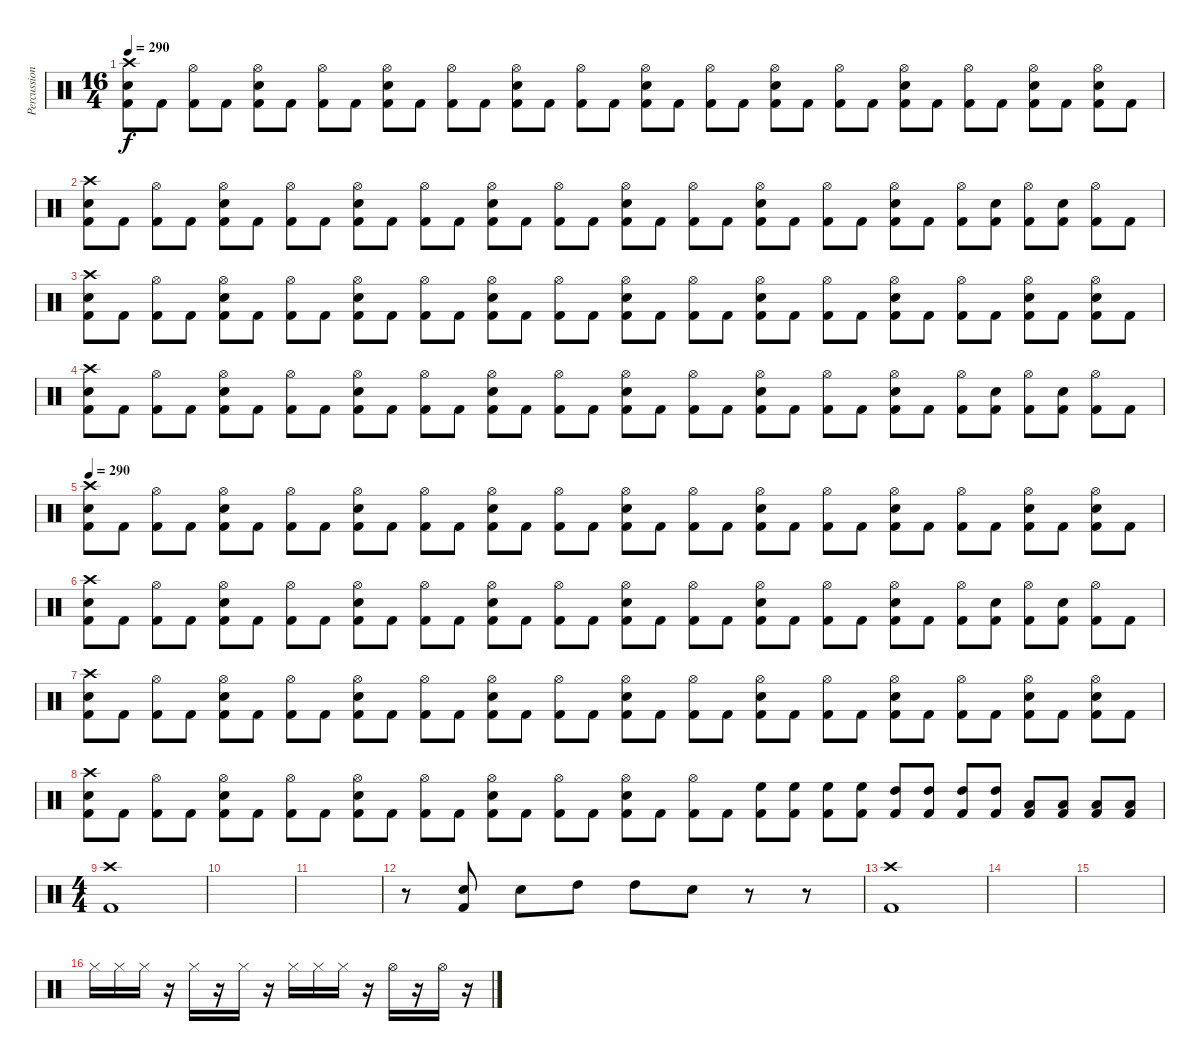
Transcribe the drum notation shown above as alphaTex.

\track ("Percussion" "Percussion") {instrument percussion}
\staff {score}
\articulation defaults
\ts (16 4)
\tempo 290
\clef neutral
\ks c
("Crash high (hit)" "Snare (hit) 2" "Kick (hit) 2").8{dy f} "Kick (hit) 2".8 ("Hi-Hat (open)" "Kick (hit) 2").8 "Kick (hit) 2".8 ("Hi-Hat (open)" "Snare (hit) 2" "Kick (hit) 2").8 "Kick (hit) 2".8 ("Hi-Hat (open)" "Kick (hit) 2").8 "Kick (hit) 2".8 ("Hi-Hat (open)" "Snare (hit) 2" "Kick (hit) 2").8 "Kick (hit) 2".8 ("Hi-Hat (open)" "Kick (hit) 2").8 "Kick (hit) 2".8 ("Hi-Hat (open)" "Snare (hit) 2" "Kick (hit) 2").8 "Kick (hit) 2".8 ("Hi-Hat (open)" "Kick (hit) 2").8 "Kick (hit) 2".8 ("Hi-Hat (open)" "Snare (hit) 2" "Kick (hit) 2").8 "Kick (hit) 2".8 ("Hi-Hat (open)" "Kick (hit) 2").8 "Kick (hit) 2".8 ("Hi-Hat (open)" "Snare (hit) 2" "Kick (hit) 2").8 "Kick (hit) 2".8 ("Hi-Hat (open)" "Kick (hit) 2").8 "Kick (hit) 2".8 ("Hi-Hat (open)" "Snare (hit) 2" "Kick (hit) 2").8 "Kick (hit) 2".8 ("Hi-Hat (open)" "Kick (hit) 2").8 "Kick (hit) 2".8 ("Hi-Hat (open)" "Snare (hit) 2" "Kick (hit) 2").8 "Kick (hit) 2".8 ("Hi-Hat (open)" "Snare (hit) 2" "Kick (hit) 2").8 "Kick (hit) 2".8 |
("Crash high (hit)" "Snare (hit) 2" "Kick (hit) 2").8 "Kick (hit) 2".8 ("Hi-Hat (open)" "Kick (hit) 2").8 "Kick (hit) 2".8 ("Hi-Hat (open)" "Snare (hit) 2" "Kick (hit) 2").8 "Kick (hit) 2".8 ("Hi-Hat (open)" "Kick (hit) 2").8 "Kick (hit) 2".8 ("Hi-Hat (open)" "Snare (hit) 2" "Kick (hit) 2").8 "Kick (hit) 2".8 ("Hi-Hat (open)" "Kick (hit) 2").8 "Kick (hit) 2".8 ("Hi-Hat (open)" "Snare (hit) 2" "Kick (hit) 2").8 "Kick (hit) 2".8 ("Hi-Hat (open)" "Kick (hit) 2").8 "Kick (hit) 2".8 ("Hi-Hat (open)" "Snare (hit) 2" "Kick (hit) 2").8 "Kick (hit) 2".8 ("Hi-Hat (open)" "Kick (hit) 2").8 "Kick (hit) 2".8 ("Hi-Hat (open)" "Snare (hit) 2" "Kick (hit) 2").8 "Kick (hit) 2".8 ("Hi-Hat (open)" "Kick (hit) 2").8 "Kick (hit) 2".8 ("Hi-Hat (open)" "Snare (hit) 2" "Kick (hit) 2").8 "Kick (hit) 2".8 ("Hi-Hat (open)" "Kick (hit) 2").8 ("Snare (hit) 2" "Kick (hit) 2").8 ("Hi-Hat (open)" "Kick (hit) 2").8 ("Snare (hit) 2" "Kick (hit) 2").8 ("Hi-Hat (open)" "Kick (hit) 2").8 "Kick (hit) 2".8 |
("Crash high (hit)" "Snare (hit) 2" "Kick (hit) 2").8 "Kick (hit) 2".8 ("Hi-Hat (open)" "Kick (hit) 2").8 "Kick (hit) 2".8 ("Hi-Hat (open)" "Snare (hit) 2" "Kick (hit) 2").8 "Kick (hit) 2".8 ("Hi-Hat (open)" "Kick (hit) 2").8 "Kick (hit) 2".8 ("Hi-Hat (open)" "Snare (hit) 2" "Kick (hit) 2").8 "Kick (hit) 2".8 ("Hi-Hat (open)" "Kick (hit) 2").8 "Kick (hit) 2".8 ("Hi-Hat (open)" "Snare (hit) 2" "Kick (hit) 2").8 "Kick (hit) 2".8 ("Hi-Hat (open)" "Kick (hit) 2").8 "Kick (hit) 2".8 ("Hi-Hat (open)" "Snare (hit) 2" "Kick (hit) 2").8 "Kick (hit) 2".8 ("Hi-Hat (open)" "Kick (hit) 2").8 "Kick (hit) 2".8 ("Hi-Hat (open)" "Snare (hit) 2" "Kick (hit) 2").8 "Kick (hit) 2".8 ("Hi-Hat (open)" "Kick (hit) 2").8 "Kick (hit) 2".8 ("Hi-Hat (open)" "Snare (hit) 2" "Kick (hit) 2").8 "Kick (hit) 2".8 ("Hi-Hat (open)" "Kick (hit) 2").8 "Kick (hit) 2".8 ("Hi-Hat (open)" "Snare (hit) 2" "Kick (hit) 2").8 "Kick (hit) 2".8 ("Hi-Hat (open)" "Snare (hit) 2" "Kick (hit) 2").8 "Kick (hit) 2".8 |
("Crash high (hit)" "Snare (hit) 2" "Kick (hit) 2").8 "Kick (hit) 2".8 ("Hi-Hat (open)" "Kick (hit) 2").8 "Kick (hit) 2".8 ("Hi-Hat (open)" "Snare (hit) 2" "Kick (hit) 2").8 "Kick (hit) 2".8 ("Hi-Hat (open)" "Kick (hit) 2").8 "Kick (hit) 2".8 ("Hi-Hat (open)" "Snare (hit) 2" "Kick (hit) 2").8 "Kick (hit) 2".8 ("Hi-Hat (open)" "Kick (hit) 2").8 "Kick (hit) 2".8 ("Hi-Hat (open)" "Snare (hit) 2" "Kick (hit) 2").8 "Kick (hit) 2".8 ("Hi-Hat (open)" "Kick (hit) 2").8 "Kick (hit) 2".8 ("Hi-Hat (open)" "Snare (hit) 2" "Kick (hit) 2").8 "Kick (hit) 2".8 ("Hi-Hat (open)" "Kick (hit) 2").8 "Kick (hit) 2".8 ("Hi-Hat (open)" "Snare (hit) 2" "Kick (hit) 2").8 "Kick (hit) 2".8 ("Hi-Hat (open)" "Kick (hit) 2").8 "Kick (hit) 2".8 ("Hi-Hat (open)" "Snare (hit) 2" "Kick (hit) 2").8 "Kick (hit) 2".8 ("Hi-Hat (open)" "Kick (hit) 2").8 ("Snare (hit) 2" "Kick (hit) 2").8 ("Hi-Hat (open)" "Kick (hit) 2").8 ("Snare (hit) 2" "Kick (hit) 2").8 ("Hi-Hat (open)" "Kick (hit) 2").8 "Kick (hit) 2".8 |
\tempo 290
("Crash high (hit)" "Snare (hit) 2" "Kick (hit) 2").8 "Kick (hit) 2".8 ("Hi-Hat (open)" "Kick (hit) 2").8 "Kick (hit) 2".8 ("Hi-Hat (open)" "Snare (hit) 2" "Kick (hit) 2").8 "Kick (hit) 2".8 ("Hi-Hat (open)" "Kick (hit) 2").8 "Kick (hit) 2".8 ("Hi-Hat (open)" "Snare (hit) 2" "Kick (hit) 2").8 "Kick (hit) 2".8 ("Hi-Hat (open)" "Kick (hit) 2").8 "Kick (hit) 2".8 ("Hi-Hat (open)" "Snare (hit) 2" "Kick (hit) 2").8 "Kick (hit) 2".8 ("Hi-Hat (open)" "Kick (hit) 2").8 "Kick (hit) 2".8 ("Hi-Hat (open)" "Snare (hit) 2" "Kick (hit) 2").8 "Kick (hit) 2".8 ("Hi-Hat (open)" "Kick (hit) 2").8 "Kick (hit) 2".8 ("Hi-Hat (open)" "Snare (hit) 2" "Kick (hit) 2").8 "Kick (hit) 2".8 ("Hi-Hat (open)" "Kick (hit) 2").8 "Kick (hit) 2".8 ("Hi-Hat (open)" "Snare (hit) 2" "Kick (hit) 2").8 "Kick (hit) 2".8 ("Hi-Hat (open)" "Kick (hit) 2").8 "Kick (hit) 2".8 ("Hi-Hat (open)" "Snare (hit) 2" "Kick (hit) 2").8 "Kick (hit) 2".8 ("Hi-Hat (open)" "Snare (hit) 2" "Kick (hit) 2").8 "Kick (hit) 2".8 |
("Crash high (hit)" "Snare (hit) 2" "Kick (hit) 2").8 "Kick (hit) 2".8 ("Hi-Hat (open)" "Kick (hit) 2").8 "Kick (hit) 2".8 ("Hi-Hat (open)" "Snare (hit) 2" "Kick (hit) 2").8 "Kick (hit) 2".8 ("Hi-Hat (open)" "Kick (hit) 2").8 "Kick (hit) 2".8 ("Hi-Hat (open)" "Snare (hit) 2" "Kick (hit) 2").8 "Kick (hit) 2".8 ("Hi-Hat (open)" "Kick (hit) 2").8 "Kick (hit) 2".8 ("Hi-Hat (open)" "Snare (hit) 2" "Kick (hit) 2").8 "Kick (hit) 2".8 ("Hi-Hat (open)" "Kick (hit) 2").8 "Kick (hit) 2".8 ("Hi-Hat (open)" "Snare (hit) 2" "Kick (hit) 2").8 "Kick (hit) 2".8 ("Hi-Hat (open)" "Kick (hit) 2").8 "Kick (hit) 2".8 ("Hi-Hat (open)" "Snare (hit) 2" "Kick (hit) 2").8 "Kick (hit) 2".8 ("Hi-Hat (open)" "Kick (hit) 2").8 "Kick (hit) 2".8 ("Hi-Hat (open)" "Snare (hit) 2" "Kick (hit) 2").8 "Kick (hit) 2".8 ("Hi-Hat (open)" "Kick (hit) 2").8 ("Snare (hit) 2" "Kick (hit) 2").8 ("Hi-Hat (open)" "Kick (hit) 2").8 ("Snare (hit) 2" "Kick (hit) 2").8 ("Hi-Hat (open)" "Kick (hit) 2").8 "Kick (hit) 2".8 |
("Crash high (hit)" "Snare (hit) 2" "Kick (hit) 2").8 "Kick (hit) 2".8 ("Hi-Hat (open)" "Kick (hit) 2").8 "Kick (hit) 2".8 ("Hi-Hat (open)" "Snare (hit) 2" "Kick (hit) 2").8 "Kick (hit) 2".8 ("Hi-Hat (open)" "Kick (hit) 2").8 "Kick (hit) 2".8 ("Hi-Hat (open)" "Snare (hit) 2" "Kick (hit) 2").8 "Kick (hit) 2".8 ("Hi-Hat (open)" "Kick (hit) 2").8 "Kick (hit) 2".8 ("Hi-Hat (open)" "Snare (hit) 2" "Kick (hit) 2").8 "Kick (hit) 2".8 ("Hi-Hat (open)" "Kick (hit) 2").8 "Kick (hit) 2".8 ("Hi-Hat (open)" "Snare (hit) 2" "Kick (hit) 2").8 "Kick (hit) 2".8 ("Hi-Hat (open)" "Kick (hit) 2").8 "Kick (hit) 2".8 ("Hi-Hat (open)" "Snare (hit) 2" "Kick (hit) 2").8 "Kick (hit) 2".8 ("Hi-Hat (open)" "Kick (hit) 2").8 "Kick (hit) 2".8 ("Hi-Hat (open)" "Snare (hit) 2" "Kick (hit) 2").8 "Kick (hit) 2".8 ("Hi-Hat (open)" "Kick (hit) 2").8 "Kick (hit) 2".8 ("Hi-Hat (open)" "Snare (hit) 2" "Kick (hit) 2").8 "Kick (hit) 2".8 ("Hi-Hat (open)" "Snare (hit) 2" "Kick (hit) 2").8 "Kick (hit) 2".8 |
("Crash high (hit)" "Snare (hit) 2" "Kick (hit) 2").8 "Kick (hit) 2".8 ("Hi-Hat (open)" "Kick (hit) 2").8 "Kick (hit) 2".8 ("Hi-Hat (open)" "Snare (hit) 2" "Kick (hit) 2").8 "Kick (hit) 2".8 ("Hi-Hat (open)" "Kick (hit) 2").8 "Kick (hit) 2".8 ("Hi-Hat (open)" "Snare (hit) 2" "Kick (hit) 2").8 "Kick (hit) 2".8 ("Hi-Hat (open)" "Kick (hit) 2").8 "Kick (hit) 2".8 ("Hi-Hat (open)" "Snare (hit) 2" "Kick (hit) 2").8 "Kick (hit) 2".8 ("Hi-Hat (open)" "Kick (hit) 2").8 "Kick (hit) 2".8 ("Hi-Hat (open)" "Snare (hit) 2" "Kick (hit) 2").8 "Kick (hit) 2".8 ("Hi-Hat (open)" "Kick (hit) 2").8 "Kick (hit) 2".8 ("High Floor Tom (hit)" "Kick (hit) 2").8 ("High Floor Tom (hit)" "Kick (hit) 2").8 ("High Floor Tom (hit)" "Kick (hit) 2").8 ("High Floor Tom (hit)" "Kick (hit) 2").8 ("High Tom (hit)" "Kick (hit) 2").8 ("High Tom (hit)" "Kick (hit) 2").8 ("High Tom (hit)" "Kick (hit) 2").8 ("High Tom (hit)" "Kick (hit) 2").8 ("Low Tom (hit)" "Kick (hit) 2").8 ("Low Tom (hit)" "Kick (hit) 2").8 ("Low Tom (hit)" "Kick (hit) 2").8 ("Low Tom (hit)" "Kick (hit) 2").8 |
\ts (4 4)
("Crash high (hit)" "Kick (hit) 2").1 |
|
|
r.8 ("Snare (hit) 2" "Kick (hit) 2").8 "Snare (hit) 2".8 "High Tom (hit)".8 "High Tom (hit)".8 "Snare (hit) 2".8 r.8 r.8 |
("Crash high (hit)" "Kick (hit) 2").1 |
|
|
"Hi-Hat (closed)".16 "Hi-Hat (closed)".16 "Hi-Hat (closed)".16 r.16 "Hi-Hat (closed)".16 r.16 "Hi-Hat (closed)".16 r.16 "Hi-Hat (closed)".16 "Hi-Hat (closed)".16 "Hi-Hat (closed)".16 r.16 "Hi-Hat (open)".16 r.16 "Hi-Hat (open)".16 r.16
